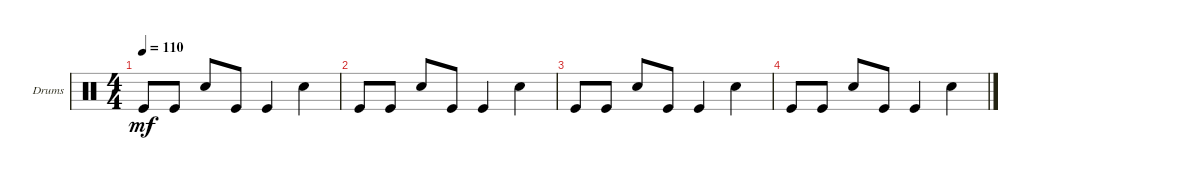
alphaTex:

\defaultSystemsLayout 4
\bracketExtendMode groupsimilarinstruments
\firstSystemTrackNameOrientation horizontal
\otherSystemsTrackNameOrientation horizontal
\track ("Drumkit" "Drums") {instrument percussion}
\staff {score}
\articulation defaults
\ts (4 4)
\tempo 110
\clef neutral
\ks c "Kick (hit)".8{dy mf} "Kick (hit)".8 "Snare (hit) 2".8 "Kick (hit)".8 "Kick (hit)".4 "Snare (hit) 2".4
|
"Kick (hit)".8 "Kick (hit)".8 "Snare (hit) 2".8 "Kick (hit)".8 "Kick (hit)".4 "Snare (hit) 2".4 |
"Kick (hit)".8 "Kick (hit)".8 "Snare (hit) 2".8 "Kick (hit)".8 "Kick (hit)".4 "Snare (hit) 2".4 |
"Kick (hit)".8 "Kick (hit)".8 "Snare (hit) 2".8 "Kick (hit)".8 "Kick (hit)".4 "Snare (hit) 2".4
